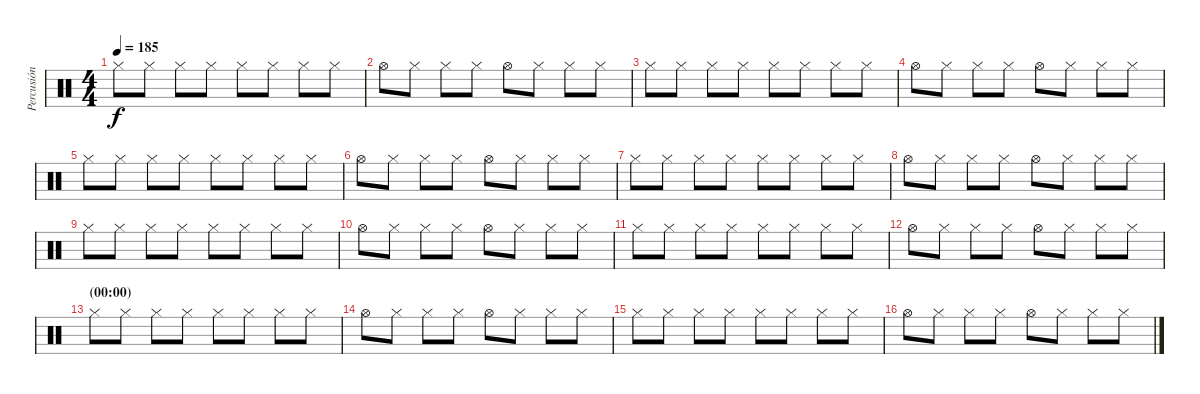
\track ("Percusión" "Percusión") {instrument percussion}
\staff {score}
\articulation defaults
\ts (4 4)
\tempo 185
\clef neutral
\ks c "Hi-Hat (closed)".8{dy f} "Hi-Hat (closed)".8 "Hi-Hat (closed)".8 "Hi-Hat (closed)".8 "Hi-Hat (closed)".8 "Hi-Hat (closed)".8 "Hi-Hat (closed)".8 "Hi-Hat (closed)".8
|
"Hi-Hat (open)".8 "Hi-Hat (closed)".8 "Hi-Hat (closed)".8 "Hi-Hat (closed)".8 "Hi-Hat (open)".8 "Hi-Hat (closed)".8 "Hi-Hat (closed)".8 "Hi-Hat (closed)".8 |
"Hi-Hat (closed)".8 "Hi-Hat (closed)".8 "Hi-Hat (closed)".8 "Hi-Hat (closed)".8 "Hi-Hat (closed)".8 "Hi-Hat (closed)".8 "Hi-Hat (closed)".8 "Hi-Hat (closed)".8 |
"Hi-Hat (open)".8 "Hi-Hat (closed)".8 "Hi-Hat (closed)".8 "Hi-Hat (closed)".8 "Hi-Hat (open)".8 "Hi-Hat (closed)".8 "Hi-Hat (closed)".8 "Hi-Hat (closed)".8 |
"Hi-Hat (closed)".8 "Hi-Hat (closed)".8 "Hi-Hat (closed)".8 "Hi-Hat (closed)".8 "Hi-Hat (closed)".8 "Hi-Hat (closed)".8 "Hi-Hat (closed)".8 "Hi-Hat (closed)".8 |
"Hi-Hat (open)".8 "Hi-Hat (closed)".8 "Hi-Hat (closed)".8 "Hi-Hat (closed)".8 "Hi-Hat (open)".8 "Hi-Hat (closed)".8 "Hi-Hat (closed)".8 "Hi-Hat (closed)".8 |
"Hi-Hat (closed)".8 "Hi-Hat (closed)".8 "Hi-Hat (closed)".8 "Hi-Hat (closed)".8 "Hi-Hat (closed)".8 "Hi-Hat (closed)".8 "Hi-Hat (closed)".8 "Hi-Hat (closed)".8 |
"Hi-Hat (open)".8 "Hi-Hat (closed)".8 "Hi-Hat (closed)".8 "Hi-Hat (closed)".8 "Hi-Hat (open)".8 "Hi-Hat (closed)".8 "Hi-Hat (closed)".8 "Hi-Hat (closed)".8 |
"Hi-Hat (closed)".8 "Hi-Hat (closed)".8 "Hi-Hat (closed)".8 "Hi-Hat (closed)".8 "Hi-Hat (closed)".8 "Hi-Hat (closed)".8 "Hi-Hat (closed)".8 "Hi-Hat (closed)".8 |
"Hi-Hat (open)".8 "Hi-Hat (closed)".8 "Hi-Hat (closed)".8 "Hi-Hat (closed)".8 "Hi-Hat (open)".8 "Hi-Hat (closed)".8 "Hi-Hat (closed)".8 "Hi-Hat (closed)".8 |
"Hi-Hat (closed)".8 "Hi-Hat (closed)".8 "Hi-Hat (closed)".8 "Hi-Hat (closed)".8 "Hi-Hat (closed)".8 "Hi-Hat (closed)".8 "Hi-Hat (closed)".8 "Hi-Hat (closed)".8 |
"Hi-Hat (open)".8 "Hi-Hat (closed)".8 "Hi-Hat (closed)".8 "Hi-Hat (closed)".8 "Hi-Hat (open)".8 "Hi-Hat (closed)".8 "Hi-Hat (closed)".8 "Hi-Hat (closed)".8 |
\section ("" "(00:00)")
"Hi-Hat (closed)".8 "Hi-Hat (closed)".8 "Hi-Hat (closed)".8 "Hi-Hat (closed)".8 "Hi-Hat (closed)".8 "Hi-Hat (closed)".8 "Hi-Hat (closed)".8 "Hi-Hat (closed)".8 |
"Hi-Hat (open)".8 "Hi-Hat (closed)".8 "Hi-Hat (closed)".8 "Hi-Hat (closed)".8 "Hi-Hat (open)".8 "Hi-Hat (closed)".8 "Hi-Hat (closed)".8 "Hi-Hat (closed)".8 |
"Hi-Hat (closed)".8 "Hi-Hat (closed)".8 "Hi-Hat (closed)".8 "Hi-Hat (closed)".8 "Hi-Hat (closed)".8 "Hi-Hat (closed)".8 "Hi-Hat (closed)".8 "Hi-Hat (closed)".8 |
"Hi-Hat (open)".8 "Hi-Hat (closed)".8 "Hi-Hat (closed)".8 "Hi-Hat (closed)".8 "Hi-Hat (open)".8 "Hi-Hat (closed)".8 "Hi-Hat (closed)".8 "Hi-Hat (closed)".8
